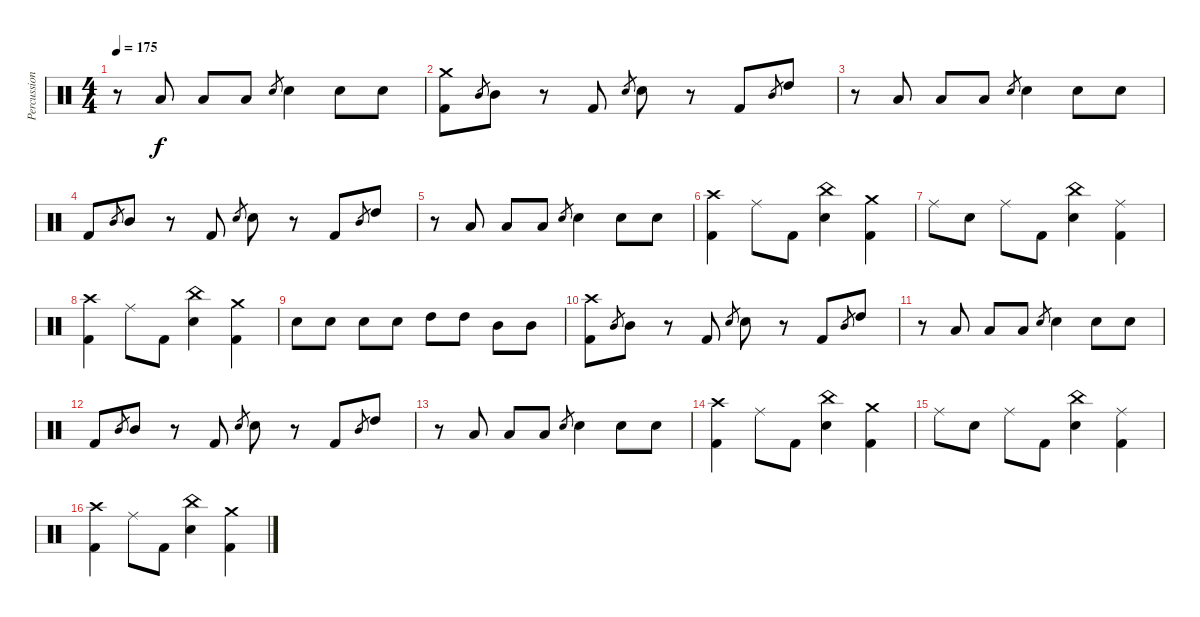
\track ("Percussion" "Percussion") {instrument percussion}
\staff {score}
\articulation defaults
\ts (4 4)
\tempo 175
\clef neutral
\ks c
r.8{dy f} "Low Tom (hit)".8 "Low Tom (hit)".8 "Low Tom (hit)".8 "Electric Snare (hit)".8{gr} "Electric Snare (hit)".4 "Electric Snare (hit)".8 "Electric Snare (hit)".8 |
("Crash medium (hit)" "Kick (hit) 2").8 "Mid Tom (hit)".8{gr} "Mid Tom (hit)".8 r.8 "Kick (hit) 2".8 "Electric Snare (hit)".8{gr} "Electric Snare (hit)".8 r.8 "Kick (hit) 2".8 "Mid Tom (hit)".8{gr} "High Tom (hit)".8 |
r.8 "Low Tom (hit)".8 "Low Tom (hit)".8 "Low Tom (hit)".8 "Electric Snare (hit)".8{gr} "Electric Snare (hit)".4 "Electric Snare (hit)".8 "Electric Snare (hit)".8 |
"Kick (hit) 2".8 "Mid Tom (hit)".8{gr} "Mid Tom (hit)".8 r.8 "Kick (hit) 2".8 "Electric Snare (hit)".8{gr} "Electric Snare (hit)".8 r.8 "Kick (hit) 2".8 "Mid Tom (hit)".8{gr} "High Tom (hit)".8 |
r.8 "Low Tom (hit)".8 "Low Tom (hit)".8 "Low Tom (hit)".8 "Electric Snare (hit)".8{gr} "Electric Snare (hit)".4 "Electric Snare (hit)".8 "Electric Snare (hit)".8 |
("Crash high (hit)" "Kick (hit) 2").4 "Ride (middle)".8 "Kick (hit) 2".8 ("China (hit)" "Electric Snare (hit)").4 ("Crash medium (hit)" "Kick (hit) 2").4 |
"Ride (middle)".8 "Electric Snare (hit)".8 "Ride (middle)".8 "Kick (hit) 2".8 ("China (hit)" "Electric Snare (hit)").4 ("Ride (middle)" "Kick (hit) 2").4 |
("Crash high (hit)" "Kick (hit) 2").4 "Ride (middle)".8 "Kick (hit) 2".8 ("China (hit)" "Electric Snare (hit)").4 ("Crash medium (hit)" "Kick (hit) 2").4 |
"Electric Snare (hit)".8 "Electric Snare (hit)".8 "Electric Snare (hit)".8 "Electric Snare (hit)".8 "High Tom (hit)".8 "High Tom (hit)".8 "Mid Tom (hit)".8 "Mid Tom (hit)".8 |
("Crash high (hit)" "Kick (hit) 2").8 "Mid Tom (hit)".8{gr} "Mid Tom (hit)".8 r.8 "Kick (hit) 2".8 "Electric Snare (hit)".8{gr} "Electric Snare (hit)".8 r.8 "Kick (hit) 2".8 "Mid Tom (hit)".8{gr} "High Tom (hit)".8 |
r.8 "Low Tom (hit)".8 "Low Tom (hit)".8 "Low Tom (hit)".8 "Electric Snare (hit)".8{gr} "Electric Snare (hit)".4 "Electric Snare (hit)".8 "Electric Snare (hit)".8 |
"Kick (hit) 2".8 "Mid Tom (hit)".8{gr} "Mid Tom (hit)".8 r.8 "Kick (hit) 2".8 "Electric Snare (hit)".8{gr} "Electric Snare (hit)".8 r.8 "Kick (hit) 2".8 "Mid Tom (hit)".8{gr} "High Tom (hit)".8 |
r.8 "Low Tom (hit)".8 "Low Tom (hit)".8 "Low Tom (hit)".8 "Electric Snare (hit)".8{gr} "Electric Snare (hit)".4 "Electric Snare (hit)".8 "Electric Snare (hit)".8 |
("Crash high (hit)" "Kick (hit) 2").4 "Ride (middle)".8 "Kick (hit) 2".8 ("China (hit)" "Electric Snare (hit)").4 ("Crash medium (hit)" "Kick (hit) 2").4 |
"Ride (middle)".8 "Electric Snare (hit)".8 "Ride (middle)".8 "Kick (hit) 2".8 ("China (hit)" "Electric Snare (hit)").4 ("Ride (middle)" "Kick (hit) 2").4 |
("Crash high (hit)" "Kick (hit) 2").4 "Ride (middle)".8 "Kick (hit) 2".8 ("China (hit)" "Electric Snare (hit)").4 ("Crash medium (hit)" "Kick (hit) 2").4
